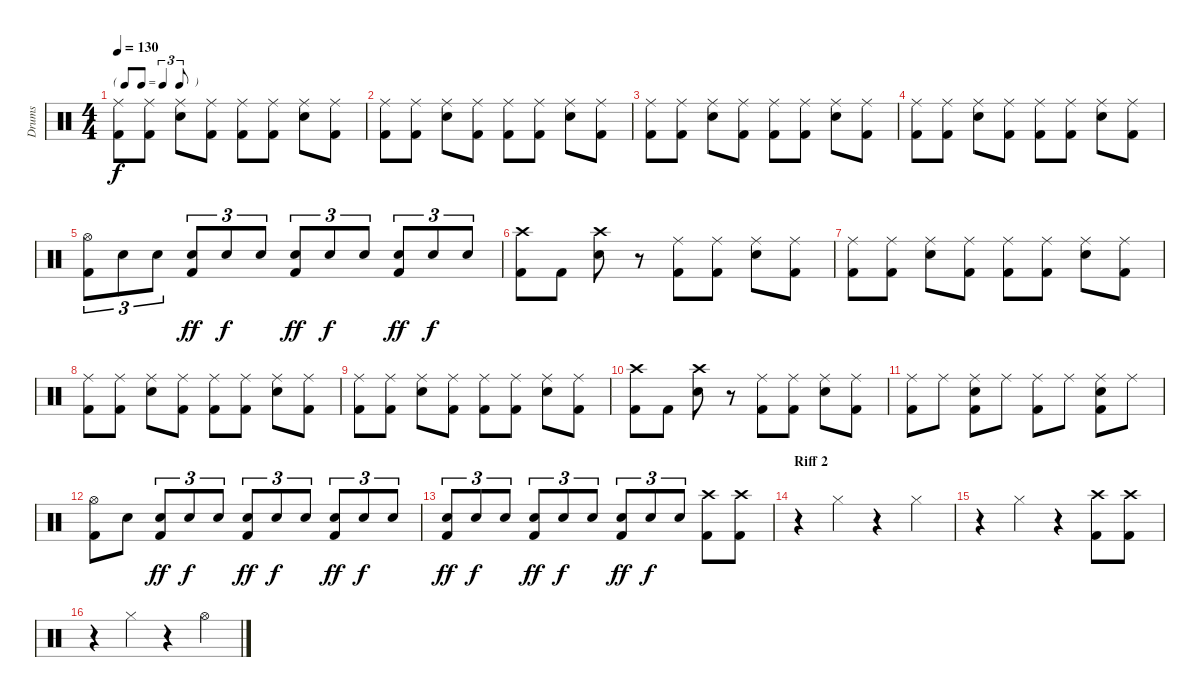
\track ("Drums" "Drums") {instrument percussion}
\staff {score}
\articulation defaults
\ts (4 4)
\tf triplet8th
\tempo 130
\clef neutral
\ks c
("Ride (middle)" "Kick (hit) 2").8{dy f} ("Ride (middle)" "Kick (hit) 2").8 ("Ride (middle)" "Electric Snare (hit)").8 ("Ride (middle)" "Kick (hit) 2").8 ("Ride (middle)" "Kick (hit) 2").8 ("Ride (middle)" "Kick (hit) 2").8 ("Ride (middle)" "Electric Snare (hit)").8 ("Ride (middle)" "Kick (hit) 2").8 |
("Ride (middle)" "Kick (hit) 2").8 ("Ride (middle)" "Kick (hit) 2").8 ("Ride (middle)" "Electric Snare (hit)").8 ("Ride (middle)" "Kick (hit) 2").8 ("Ride (middle)" "Kick (hit) 2").8 ("Ride (middle)" "Kick (hit) 2").8 ("Ride (middle)" "Electric Snare (hit)").8 ("Ride (middle)" "Kick (hit) 2").8 |
("Ride (middle)" "Kick (hit) 2").8 ("Ride (middle)" "Kick (hit) 2").8 ("Ride (middle)" "Electric Snare (hit)").8 ("Ride (middle)" "Kick (hit) 2").8 ("Ride (middle)" "Kick (hit) 2").8 ("Ride (middle)" "Kick (hit) 2").8 ("Ride (middle)" "Electric Snare (hit)").8 ("Ride (middle)" "Kick (hit) 2").8 |
("Ride (middle)" "Kick (hit) 2").8 ("Ride (middle)" "Kick (hit) 2").8 ("Ride (middle)" "Electric Snare (hit)").8 ("Ride (middle)" "Kick (hit) 2").8 ("Ride (middle)" "Kick (hit) 2").8 ("Ride (middle)" "Kick (hit) 2").8 ("Ride (middle)" "Electric Snare (hit)").8 ("Ride (middle)" "Kick (hit) 2").8 |
("Hi-Hat (open)" "Kick (hit) 2").8{tu (3 2)} "Electric Snare (hit)".8{tu (3 2)} "Electric Snare (hit)".8{tu (3 2)} ("Electric Snare (hit)" "Kick (hit) 2").8{tu (3 2) dy ff} "Electric Snare (hit)".8{tu (3 2) dy f} "Electric Snare (hit)".8{tu (3 2)} ("Electric Snare (hit)" "Kick (hit) 2").8{tu (3 2) dy ff} "Electric Snare (hit)".8{tu (3 2) dy f} "Electric Snare (hit)".8{tu (3 2)} ("Electric Snare (hit)" "Kick (hit) 2").8{tu (3 2) dy ff} "Electric Snare (hit)".8{tu (3 2) dy f} "Electric Snare (hit)".8{tu (3 2)} |
("Crash high (hit)" "Kick (hit) 2").8 "Kick (hit) 2".8 ("Crash high (hit)" "Electric Snare (hit)").8 r.8 ("Ride (middle)" "Kick (hit) 2").8 ("Ride (middle)" "Kick (hit) 2").8 ("Ride (middle)" "Electric Snare (hit)").8 ("Ride (middle)" "Kick (hit) 2").8 |
("Ride (middle)" "Kick (hit) 2").8 ("Ride (middle)" "Kick (hit) 2").8 ("Ride (middle)" "Electric Snare (hit)").8 ("Ride (middle)" "Kick (hit) 2").8 ("Ride (middle)" "Kick (hit) 2").8 ("Ride (middle)" "Kick (hit) 2").8 ("Ride (middle)" "Electric Snare (hit)").8 ("Ride (middle)" "Kick (hit) 2").8 |
("Ride (middle)" "Kick (hit) 2").8 ("Ride (middle)" "Kick (hit) 2").8 ("Ride (middle)" "Electric Snare (hit)").8 ("Ride (middle)" "Kick (hit) 2").8 ("Ride (middle)" "Kick (hit) 2").8 ("Ride (middle)" "Kick (hit) 2").8 ("Ride (middle)" "Electric Snare (hit)").8 ("Ride (middle)" "Kick (hit) 2").8 |
("Ride (middle)" "Kick (hit) 2").8 ("Ride (middle)" "Kick (hit) 2").8 ("Ride (middle)" "Electric Snare (hit)").8 ("Ride (middle)" "Kick (hit) 2").8 ("Ride (middle)" "Kick (hit) 2").8 ("Ride (middle)" "Kick (hit) 2").8 ("Ride (middle)" "Electric Snare (hit)").8 ("Ride (middle)" "Kick (hit) 2").8 |
("Crash high (hit)" "Kick (hit) 2").8 "Kick (hit) 2".8 ("Crash high (hit)" "Electric Snare (hit)").8 r.8 ("Ride (middle)" "Kick (hit) 2").8 ("Ride (middle)" "Kick (hit) 2").8 ("Ride (middle)" "Electric Snare (hit)").8 ("Ride (middle)" "Kick (hit) 2").8 |
("Ride (middle)" "Kick (hit) 2").8 "Ride (middle)".8 ("Ride (middle)" "Electric Snare (hit)" "Kick (hit) 2").8 "Ride (middle)".8 ("Ride (middle)" "Kick (hit) 2").8 "Ride (middle)".8 ("Ride (middle)" "Electric Snare (hit)" "Kick (hit) 2").8 "Ride (middle)".8 |
("Hi-Hat (open)" "Kick (hit) 2").8 "Electric Snare (hit)".8 ("Electric Snare (hit)" "Kick (hit) 2").8{tu (3 2) dy ff} "Electric Snare (hit)".8{tu (3 2) dy f} "Electric Snare (hit)".8{tu (3 2)} ("Electric Snare (hit)" "Kick (hit) 2").8{tu (3 2) dy ff} "Electric Snare (hit)".8{tu (3 2) dy f} "Electric Snare (hit)".8{tu (3 2)} ("Electric Snare (hit)" "Kick (hit) 2").8{tu (3 2) dy ff} "Electric Snare (hit)".8{tu (3 2) dy f} "Electric Snare (hit)".8{tu (3 2)} |
("Electric Snare (hit)" "Kick (hit) 2").8{tu (3 2) dy ff} "Electric Snare (hit)".8{tu (3 2) dy f} "Electric Snare (hit)".8{tu (3 2)} ("Electric Snare (hit)" "Kick (hit) 2").8{tu (3 2) dy ff} "Electric Snare (hit)".8{tu (3 2) dy f} "Electric Snare (hit)".8{tu (3 2)} ("Electric Snare (hit)" "Kick (hit) 2").8{tu (3 2) dy ff} "Electric Snare (hit)".8{tu (3 2) dy f} "Electric Snare (hit)".8{tu (3 2)} ("Crash high (hit)" "Kick (hit) 2").8 ("Crash high (hit)" "Kick (hit) 2").8 |
\section ("" "Riff 2")
r.4 "Hi-Hat (closed)".4 r.4 "Hi-Hat (closed)".4 |
r.4 "Hi-Hat (closed)".4 r.4 ("Crash high (hit)" "Kick (hit) 2").8 ("Crash high (hit)" "Kick (hit) 2").8 |
r.4 "Hi-Hat (closed)".4 r.4 "Hi-Hat (open)".4
